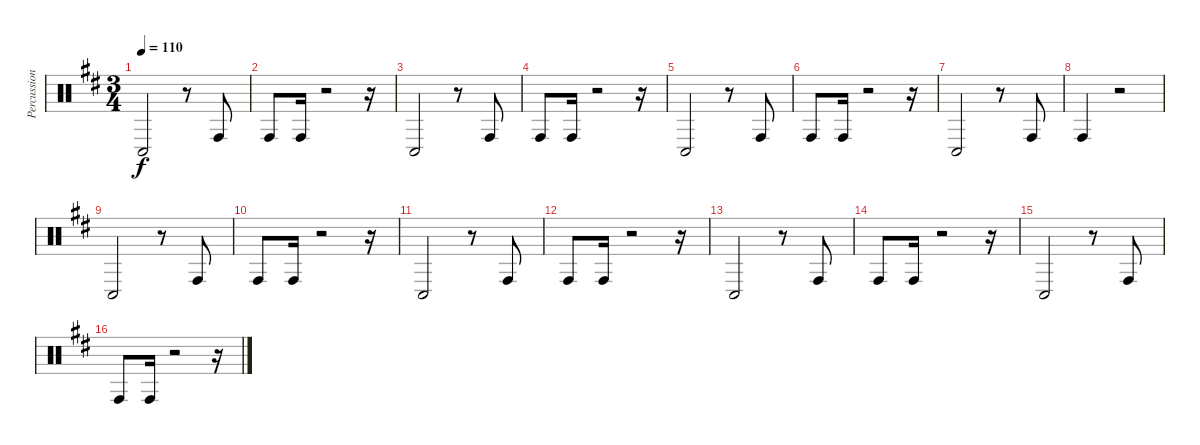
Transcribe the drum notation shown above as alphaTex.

\track ("Percussion" "Percussion") {instrument percussion}
\staff {score}
\articulation defaults
\ts (3 4)
\tempo 110
\clef neutral
\ks d "Conga low (hit)".2{dy f}
r.8 "Conga high (hit)".8 |
"Conga high (hit)".8 "Conga high (hit)".16 r.2 r.16 |
"Conga low (hit)".2 r.8 "Conga high (hit)".8 |
"Conga high (hit)".8 "Conga high (hit)".16 r.2 r.16 |
"Conga low (hit)".2 r.8 "Conga high (hit)".8 |
"Conga high (hit)".8 "Conga high (hit)".16 r.2 r.16 |
"Conga low (hit)".2 r.8 "Conga high (hit)".8 |
"Conga high (hit)".4 r.2 |
"Conga low (hit)".2 r.8 "Conga high (hit)".8 |
"Conga high (hit)".8 "Conga high (hit)".16 r.2 r.16 |
"Conga low (hit)".2 r.8 "Conga high (hit)".8 |
"Conga high (hit)".8 "Conga high (hit)".16 r.2 r.16 |
"Conga low (hit)".2 r.8 "Conga high (hit)".8 |
"Conga high (hit)".8 "Conga high (hit)".16 r.2 r.16 |
"Conga low (hit)".2 r.8 "Conga high (hit)".8 |
"Conga high (hit)".8 "Conga high (hit)".16 r.2 r.16
